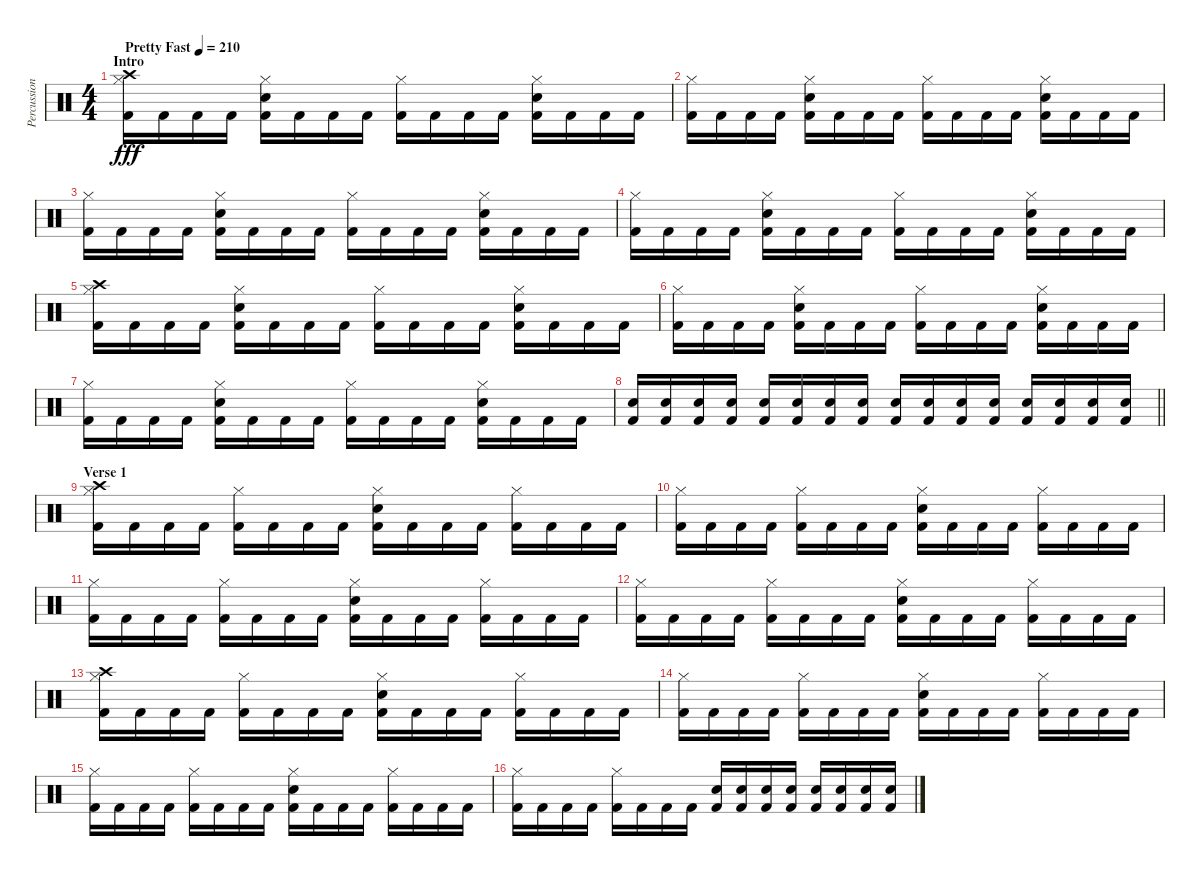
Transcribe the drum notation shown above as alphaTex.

\track ("Percussion" "Percussion") {instrument percussion}
\staff {score}
\articulation defaults
\ts (4 4)
\section ("" "Intro")
\tempo (210 "Pretty Fast")
\clef neutral
\ks c
("Crash high (hit)" "Hi-Hat (closed)" "Kick (hit) 2").16{dy fff} "Kick (hit) 2".16 "Kick (hit) 2".16 "Kick (hit) 2".16 ("Electric Snare (hit)" "Hi-Hat (closed)" "Kick (hit) 2").16 "Kick (hit) 2".16 "Kick (hit) 2".16 "Kick (hit) 2".16 ("Hi-Hat (closed)" "Kick (hit) 2").16 "Kick (hit) 2".16 "Kick (hit) 2".16 "Kick (hit) 2".16 ("Electric Snare (hit)" "Hi-Hat (closed)" "Kick (hit) 2").16 "Kick (hit) 2".16 "Kick (hit) 2".16 "Kick (hit) 2".16 |
("Hi-Hat (closed)" "Kick (hit) 2").16 "Kick (hit) 2".16 "Kick (hit) 2".16 "Kick (hit) 2".16 ("Electric Snare (hit)" "Hi-Hat (closed)" "Kick (hit) 2").16 "Kick (hit) 2".16 "Kick (hit) 2".16 "Kick (hit) 2".16 ("Hi-Hat (closed)" "Kick (hit) 2").16 "Kick (hit) 2".16 "Kick (hit) 2".16 "Kick (hit) 2".16 ("Electric Snare (hit)" "Hi-Hat (closed)" "Kick (hit) 2").16 "Kick (hit) 2".16 "Kick (hit) 2".16 "Kick (hit) 2".16 |
("Hi-Hat (closed)" "Kick (hit) 2").16 "Kick (hit) 2".16 "Kick (hit) 2".16 "Kick (hit) 2".16 ("Electric Snare (hit)" "Hi-Hat (closed)" "Kick (hit) 2").16 "Kick (hit) 2".16 "Kick (hit) 2".16 "Kick (hit) 2".16 ("Hi-Hat (closed)" "Kick (hit) 2").16 "Kick (hit) 2".16 "Kick (hit) 2".16 "Kick (hit) 2".16 ("Electric Snare (hit)" "Hi-Hat (closed)" "Kick (hit) 2").16 "Kick (hit) 2".16 "Kick (hit) 2".16 "Kick (hit) 2".16 |
("Hi-Hat (closed)" "Kick (hit) 2").16 "Kick (hit) 2".16 "Kick (hit) 2".16 "Kick (hit) 2".16 ("Electric Snare (hit)" "Hi-Hat (closed)" "Kick (hit) 2").16 "Kick (hit) 2".16 "Kick (hit) 2".16 "Kick (hit) 2".16 ("Hi-Hat (closed)" "Kick (hit) 2").16 "Kick (hit) 2".16 "Kick (hit) 2".16 "Kick (hit) 2".16 ("Electric Snare (hit)" "Hi-Hat (closed)" "Kick (hit) 2").16 "Kick (hit) 2".16 "Kick (hit) 2".16 "Kick (hit) 2".16 |
("Crash high (hit)" "Hi-Hat (closed)" "Kick (hit) 2").16 "Kick (hit) 2".16 "Kick (hit) 2".16 "Kick (hit) 2".16 ("Electric Snare (hit)" "Hi-Hat (closed)" "Kick (hit) 2").16 "Kick (hit) 2".16 "Kick (hit) 2".16 "Kick (hit) 2".16 ("Hi-Hat (closed)" "Kick (hit) 2").16 "Kick (hit) 2".16 "Kick (hit) 2".16 "Kick (hit) 2".16 ("Electric Snare (hit)" "Hi-Hat (closed)" "Kick (hit) 2").16 "Kick (hit) 2".16 "Kick (hit) 2".16 "Kick (hit) 2".16 |
("Hi-Hat (closed)" "Kick (hit) 2").16 "Kick (hit) 2".16 "Kick (hit) 2".16 "Kick (hit) 2".16 ("Electric Snare (hit)" "Hi-Hat (closed)" "Kick (hit) 2").16 "Kick (hit) 2".16 "Kick (hit) 2".16 "Kick (hit) 2".16 ("Hi-Hat (closed)" "Kick (hit) 2").16 "Kick (hit) 2".16 "Kick (hit) 2".16 "Kick (hit) 2".16 ("Electric Snare (hit)" "Hi-Hat (closed)" "Kick (hit) 2").16 "Kick (hit) 2".16 "Kick (hit) 2".16 "Kick (hit) 2".16 |
("Hi-Hat (closed)" "Kick (hit) 2").16 "Kick (hit) 2".16 "Kick (hit) 2".16 "Kick (hit) 2".16 ("Electric Snare (hit)" "Hi-Hat (closed)" "Kick (hit) 2").16 "Kick (hit) 2".16 "Kick (hit) 2".16 "Kick (hit) 2".16 ("Hi-Hat (closed)" "Kick (hit) 2").16 "Kick (hit) 2".16 "Kick (hit) 2".16 "Kick (hit) 2".16 ("Electric Snare (hit)" "Hi-Hat (closed)" "Kick (hit) 2").16 "Kick (hit) 2".16 "Kick (hit) 2".16 "Kick (hit) 2".16 |
\barLineRight lightlight
("Electric Snare (hit)" "Kick (hit) 2").16 ("Electric Snare (hit)" "Kick (hit) 2").16 ("Electric Snare (hit)" "Kick (hit) 2").16 ("Electric Snare (hit)" "Kick (hit) 2").16 ("Electric Snare (hit)" "Kick (hit) 2").16 ("Electric Snare (hit)" "Kick (hit) 2").16 ("Electric Snare (hit)" "Kick (hit) 2").16 ("Electric Snare (hit)" "Kick (hit) 2").16 ("Electric Snare (hit)" "Kick (hit) 2").16 ("Electric Snare (hit)" "Kick (hit) 2").16 ("Electric Snare (hit)" "Kick (hit) 2").16 ("Electric Snare (hit)" "Kick (hit) 2").16 ("Electric Snare (hit)" "Kick (hit) 2").16 ("Electric Snare (hit)" "Kick (hit) 2").16 ("Electric Snare (hit)" "Kick (hit) 2").16 ("Electric Snare (hit)" "Kick (hit) 2").16 |
\section ("" "Verse 1")
("Crash high (hit)" "Hi-Hat (closed)" "Kick (hit) 2").16 "Kick (hit) 2".16 "Kick (hit) 2".16 "Kick (hit) 2".16 ("Hi-Hat (closed)" "Kick (hit) 2").16 "Kick (hit) 2".16 "Kick (hit) 2".16 "Kick (hit) 2".16 ("Electric Snare (hit)" "Hi-Hat (closed)" "Kick (hit) 2").16 "Kick (hit) 2".16 "Kick (hit) 2".16 "Kick (hit) 2".16 ("Hi-Hat (closed)" "Kick (hit) 2").16 "Kick (hit) 2".16 "Kick (hit) 2".16 "Kick (hit) 2".16 |
("Hi-Hat (closed)" "Kick (hit) 2").16 "Kick (hit) 2".16 "Kick (hit) 2".16 "Kick (hit) 2".16 ("Hi-Hat (closed)" "Kick (hit) 2").16 "Kick (hit) 2".16 "Kick (hit) 2".16 "Kick (hit) 2".16 ("Electric Snare (hit)" "Hi-Hat (closed)" "Kick (hit) 2").16 "Kick (hit) 2".16 "Kick (hit) 2".16 "Kick (hit) 2".16 ("Hi-Hat (closed)" "Kick (hit) 2").16 "Kick (hit) 2".16 "Kick (hit) 2".16 "Kick (hit) 2".16 |
("Hi-Hat (closed)" "Kick (hit) 2").16 "Kick (hit) 2".16 "Kick (hit) 2".16 "Kick (hit) 2".16 ("Hi-Hat (closed)" "Kick (hit) 2").16 "Kick (hit) 2".16 "Kick (hit) 2".16 "Kick (hit) 2".16 ("Electric Snare (hit)" "Hi-Hat (closed)" "Kick (hit) 2").16 "Kick (hit) 2".16 "Kick (hit) 2".16 "Kick (hit) 2".16 ("Hi-Hat (closed)" "Kick (hit) 2").16 "Kick (hit) 2".16 "Kick (hit) 2".16 "Kick (hit) 2".16 |
("Hi-Hat (closed)" "Kick (hit) 2").16 "Kick (hit) 2".16 "Kick (hit) 2".16 "Kick (hit) 2".16 ("Hi-Hat (closed)" "Kick (hit) 2").16 "Kick (hit) 2".16 "Kick (hit) 2".16 "Kick (hit) 2".16 ("Electric Snare (hit)" "Hi-Hat (closed)" "Kick (hit) 2").16 "Kick (hit) 2".16 "Kick (hit) 2".16 "Kick (hit) 2".16 ("Hi-Hat (closed)" "Kick (hit) 2").16 "Kick (hit) 2".16 "Kick (hit) 2".16 "Kick (hit) 2".16 |
("Crash high (hit)" "Hi-Hat (closed)" "Kick (hit) 2").16 "Kick (hit) 2".16 "Kick (hit) 2".16 "Kick (hit) 2".16 ("Hi-Hat (closed)" "Kick (hit) 2").16 "Kick (hit) 2".16 "Kick (hit) 2".16 "Kick (hit) 2".16 ("Electric Snare (hit)" "Hi-Hat (closed)" "Kick (hit) 2").16 "Kick (hit) 2".16 "Kick (hit) 2".16 "Kick (hit) 2".16 ("Hi-Hat (closed)" "Kick (hit) 2").16 "Kick (hit) 2".16 "Kick (hit) 2".16 "Kick (hit) 2".16 |
("Hi-Hat (closed)" "Kick (hit) 2").16 "Kick (hit) 2".16 "Kick (hit) 2".16 "Kick (hit) 2".16 ("Hi-Hat (closed)" "Kick (hit) 2").16 "Kick (hit) 2".16 "Kick (hit) 2".16 "Kick (hit) 2".16 ("Electric Snare (hit)" "Hi-Hat (closed)" "Kick (hit) 2").16 "Kick (hit) 2".16 "Kick (hit) 2".16 "Kick (hit) 2".16 ("Hi-Hat (closed)" "Kick (hit) 2").16 "Kick (hit) 2".16 "Kick (hit) 2".16 "Kick (hit) 2".16 |
("Hi-Hat (closed)" "Kick (hit) 2").16 "Kick (hit) 2".16 "Kick (hit) 2".16 "Kick (hit) 2".16 ("Hi-Hat (closed)" "Kick (hit) 2").16 "Kick (hit) 2".16 "Kick (hit) 2".16 "Kick (hit) 2".16 ("Electric Snare (hit)" "Hi-Hat (closed)" "Kick (hit) 2").16 "Kick (hit) 2".16 "Kick (hit) 2".16 "Kick (hit) 2".16 ("Hi-Hat (closed)" "Kick (hit) 2").16 "Kick (hit) 2".16 "Kick (hit) 2".16 "Kick (hit) 2".16 |
("Hi-Hat (closed)" "Kick (hit) 2").16 "Kick (hit) 2".16 "Kick (hit) 2".16 "Kick (hit) 2".16 ("Hi-Hat (closed)" "Kick (hit) 2").16 "Kick (hit) 2".16 "Kick (hit) 2".16 "Kick (hit) 2".16 ("Electric Snare (hit)" "Kick (hit) 2").16 ("Electric Snare (hit)" "Kick (hit) 2").16 ("Electric Snare (hit)" "Kick (hit) 2").16 ("Electric Snare (hit)" "Kick (hit) 2").16 ("Electric Snare (hit)" "Kick (hit) 2").16 ("Electric Snare (hit)" "Kick (hit) 2").16 ("Electric Snare (hit)" "Kick (hit) 2").16 ("Electric Snare (hit)" "Kick (hit) 2").16
